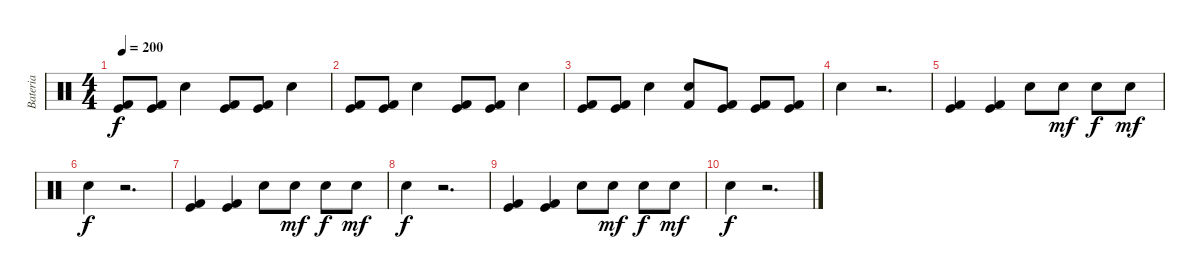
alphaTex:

\track ("Bateria" "Bateria") {instrument percussion}
\staff {score}
\articulation defaults
\ts (4 4)
\tempo 200
\clef neutral
\ks c
("Kick (hit)" "Kick (hit) 2").8{dy f} ("Kick (hit)" "Kick (hit) 2").8 "Electric Snare (hit)".4 ("Kick (hit)" "Kick (hit) 2").8 ("Kick (hit)" "Kick (hit) 2").8 "Electric Snare (hit)".4 |
("Kick (hit)" "Kick (hit) 2").8 ("Kick (hit)" "Kick (hit) 2").8 "Electric Snare (hit)".4 ("Kick (hit)" "Kick (hit) 2").8 ("Kick (hit)" "Kick (hit) 2").8 "Electric Snare (hit)".4 |
("Kick (hit)" "Kick (hit) 2").8 ("Kick (hit)" "Kick (hit) 2").8 "Electric Snare (hit)".4 ("Electric Snare (hit)" "Kick (hit) 2").8 ("Kick (hit)" "Kick (hit) 2").8 ("Kick (hit) 2" "Kick (hit)").8 ("Kick (hit) 2" "Kick (hit)").8 |
"Electric Snare (hit)".4 r.2{d} |
("Kick (hit)" "Kick (hit) 2").4 ("Kick (hit) 2" "Kick (hit)").4 "Electric Snare (hit)".8 "Electric Snare (hit)".8{dy mf} "Electric Snare (hit)".8{dy f} "Electric Snare (hit)".8{dy mf} |
"Electric Snare (hit)".4{dy f} r.2{d} |
("Kick (hit)" "Kick (hit) 2").4 ("Kick (hit) 2" "Kick (hit)").4 "Electric Snare (hit)".8 "Electric Snare (hit)".8{dy mf} "Electric Snare (hit)".8{dy f} "Electric Snare (hit)".8{dy mf} |
"Electric Snare (hit)".4{dy f} r.2{d} |
("Kick (hit)" "Kick (hit) 2").4 ("Kick (hit) 2" "Kick (hit)").4 "Electric Snare (hit)".8 "Electric Snare (hit)".8{dy mf} "Electric Snare (hit)".8{dy f} "Electric Snare (hit)".8{dy mf} |
"Electric Snare (hit)".4{dy f} r.2{d}
